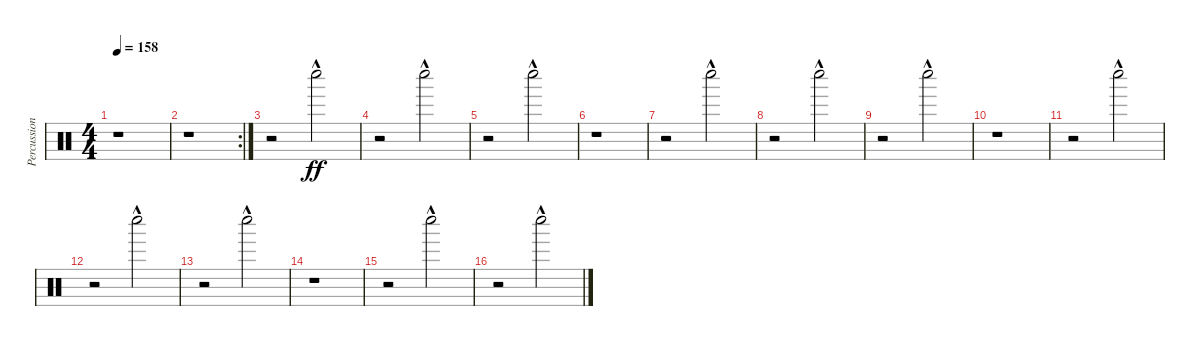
\track ("Percussion" "Percussion") {instrument percussion}
\staff {score}
\articulation defaults
\ts (4 4)
\tempo 158
\clef neutral
\ks c
r.1{dy ff} |
\rc 2
r.1 |
r.2 "Whistle low (hit)"{hac}.2 |
r.2 "Whistle low (hit)"{hac}.2 |
r.2 "Whistle low (hit)"{hac}.2 |
r.1 |
r.2 "Whistle low (hit)"{hac}.2 |
r.2 "Whistle low (hit)"{hac}.2 |
r.2 "Whistle low (hit)"{hac}.2 |
r.1 |
r.2 "Whistle low (hit)"{hac}.2 |
r.2 "Whistle low (hit)"{hac}.2 |
r.2 "Whistle low (hit)"{hac}.2 |
r.1 |
r.2 "Whistle low (hit)"{hac}.2 |
r.2 "Whistle low (hit)"{hac}.2
